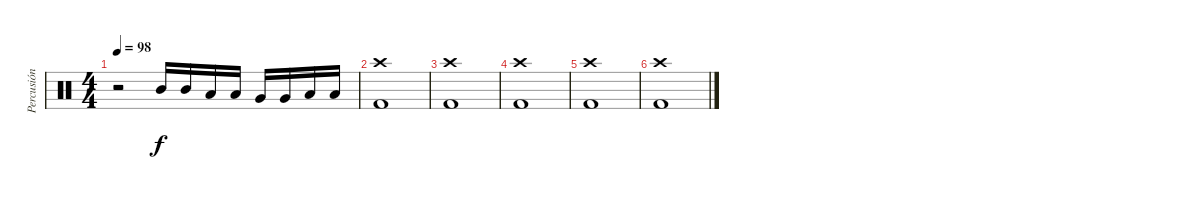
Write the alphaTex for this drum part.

\track ("Percusión" "Percusión") {instrument percussion}
\staff {score}
\articulation defaults
\ts (4 4)
\tempo 98
\clef neutral
\ks c
r.2{dy f} "Mid Tom (hit)".16 "Mid Tom (hit)".16 "Low Tom (hit)".16 "Low Tom (hit)".16 "Very Low Tom (hit)".16 "Very Low Tom (hit)".16 "Low Floor Tom (hit)".16 "Low Floor Tom (hit)".16 |
("Crash high (hit)" "Kick (hit) 2").1 |
("Crash high (hit)" "Kick (hit) 2").1 |
("Crash high (hit)" "Kick (hit) 2").1 |
("Crash high (hit)" "Kick (hit) 2").1 |
("Crash high (hit)" "Kick (hit) 2").1
